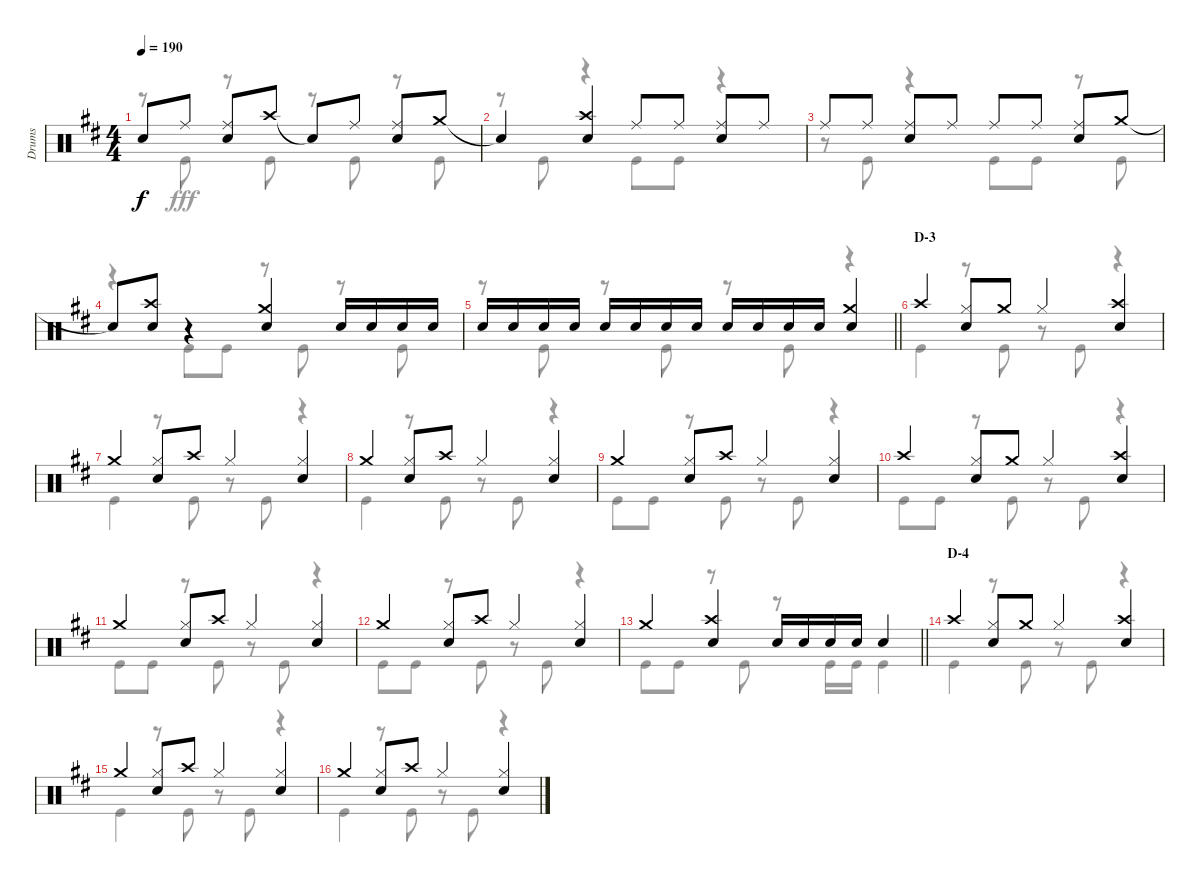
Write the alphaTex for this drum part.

\track ("Drums" "Drums") {instrument percussion}
\staff {score}
\articulation defaults
\voice
\ts (4 4)
\tempo 190
\clef neutral
\ks d "Snare (hit)"{t}.8{dy f} "Ride (middle)".8
("Ride (middle)" "Snare (hit) 2").8 "Crash high (hit)".8 "Snare (hit)"{t}.8 "Ride (middle)".8 ("Ride (middle)" "Snare (hit) 2").8 "Crash medium (hit)".8 |
"Snare (hit)"{t}.4 ("Crash high (hit)" "Snare (hit) 2").4 "Ride (middle)".8 "Ride (middle)".8 ("Ride (middle)" "Snare (hit) 2").8 "Ride (middle)".8 |
"Ride (middle)".8 "Ride (middle)".8 ("Ride (middle)" "Snare (hit) 2").8 "Ride (middle)".8 "Ride (middle)".8 "Ride (middle)".8 ("Ride (middle)" "Snare (hit) 2").8 "Crash medium (hit)".8 |
"Snare (hit)"{t}.8 ("Crash high (hit)" "Snare (hit) 2").8 r.4 ("Crash medium (hit)" "Snare (hit) 2").4 "Snare (hit) 2".16 "Snare (hit) 2".16 "Snare (hit) 2".16 "Snare (hit) 2".16 |
\barLineRight lightlight "Snare (hit) 2".16 "Snare (hit) 2".16 "Snare (hit) 2".16 "Snare (hit) 2".16 "Snare (hit) 2".16 "Snare (hit) 2".16 "Snare (hit) 2".16 "Snare (hit) 2".16 "Snare (hit) 2".16 "Snare (hit) 2".16 "Snare (hit) 2".16 "Snare (hit) 2".16
("Crash medium (hit)" "Snare (hit) 2").4 |
\section ("" "D-3")
"Crash high (hit)".4 ("Hi-Hat (closed)" "Snare (hit) 2").8 "Crash medium (hit)".8 "Hi-Hat (closed)".4 ("Crash high (hit)" "Snare (hit) 2").4 |
"Crash medium (hit)".4 ("Hi-Hat (closed)" "Snare (hit) 2").8 "Crash high (hit)".8 "Hi-Hat (closed)".4 ("Hi-Hat (closed)" "Snare (hit) 2").4 |
"Crash medium (hit)".4 ("Hi-Hat (closed)" "Snare (hit) 2").8 "Crash high (hit)".8 "Hi-Hat (closed)".4 ("Hi-Hat (closed)" "Snare (hit) 2").4 |
"Crash medium (hit)".4 ("Hi-Hat (closed)" "Snare (hit) 2").8 "Crash high (hit)".8 "Hi-Hat (closed)".4 ("Hi-Hat (closed)" "Snare (hit) 2").4 |
"Crash high (hit)".4 ("Hi-Hat (closed)" "Snare (hit) 2").8 "Crash medium (hit)".8 "Hi-Hat (closed)".4 ("Crash high (hit)" "Snare (hit) 2").4 |
"Crash medium (hit)".4 ("Hi-Hat (closed)" "Snare (hit) 2").8 "Crash high (hit)".8 "Hi-Hat (closed)".4 ("Hi-Hat (closed)" "Snare (hit) 2").4 |
"Crash medium (hit)".4 ("Hi-Hat (closed)" "Snare (hit) 2").8 "Crash high (hit)".8 "Hi-Hat (closed)".4 ("Hi-Hat (closed)" "Snare (hit) 2").4 |
\barLineRight lightlight "Crash medium (hit)".4
("Crash high (hit)" "Snare (hit) 2").4 "Snare (hit) 2".16 "Snare (hit) 2".16 "Snare (hit) 2".16 "Snare (hit) 2".16 "Snare (hit) 2".4 |
\section ("" "D-4")
"Crash high (hit)".4 ("Hi-Hat (closed)" "Snare (hit) 2").8 "Crash medium (hit)".8 "Hi-Hat (closed)".4 ("Crash high (hit)" "Snare (hit) 2").4 |
"Crash medium (hit)".4 ("Hi-Hat (closed)" "Snare (hit) 2").8 "Crash high (hit)".8 "Hi-Hat (closed)".4 ("Hi-Hat (closed)" "Snare (hit) 2").4 |
"Crash medium (hit)".4 ("Hi-Hat (closed)" "Snare (hit) 2").8 "Crash high (hit)".8 "Hi-Hat (closed)".4 ("Hi-Hat (closed)" "Snare (hit) 2").4
\voice
\clef neutral
\ottava regular
\simile none
\ks d
r.8{dy fff} "Kick (hit)".8 r.8 "Kick (hit)".8 r.8 "Kick (hit)".8 r.8 "Kick (hit)".8 |
r.8 "Kick (hit)".8 r.4 "Kick (hit)".8 "Kick (hit)".8 r.4 |
r.8 "Kick (hit)".8 r.4 "Kick (hit)".8 "Kick (hit)".8 r.8 "Kick (hit)".8 |
r.4 "Kick (hit)".8 "Kick (hit)".8 r.8 "Kick (hit)".8 r.8 "Kick (hit)".8 |
\barLineRight lightlight
r.8 "Kick (hit)".8 r.8 "Kick (hit)".8 r.8 "Kick (hit)".8 r.4 |
"Kick (hit)".4 r.8 "Kick (hit)".8 r.8 "Kick (hit)".8 r.4 |
"Kick (hit)".4 r.8 "Kick (hit)".8 r.8 "Kick (hit)".8 r.4 |
"Kick (hit)".4 r.8 "Kick (hit)".8 r.8 "Kick (hit)".8 r.4 |
"Kick (hit)".8 "Kick (hit)".8 r.8 "Kick (hit)".8 r.8 "Kick (hit)".8 r.4 |
"Kick (hit)".8 "Kick (hit)".8 r.8 "Kick (hit)".8 r.8 "Kick (hit)".8 r.4 |
"Kick (hit)".8 "Kick (hit)".8 r.8 "Kick (hit)".8 r.8 "Kick (hit)".8 r.4 |
"Kick (hit)".8 "Kick (hit)".8 r.8 "Kick (hit)".8 r.8 "Kick (hit)".8 r.4 |
\barLineRight lightlight "Kick (hit)".8 "Kick (hit)".8
r.8 "Kick (hit)".8 r.8 "Kick (hit)".16 "Kick (hit)".16 "Kick (hit)".4 |
"Kick (hit)".4 r.8 "Kick (hit)".8 r.8 "Kick (hit)".8 r.4 |
"Kick (hit)".4 r.8 "Kick (hit)".8 r.8 "Kick (hit)".8 r.4 |
"Kick (hit)".4 r.8 "Kick (hit)".8 r.8 "Kick (hit)".8 r.4
